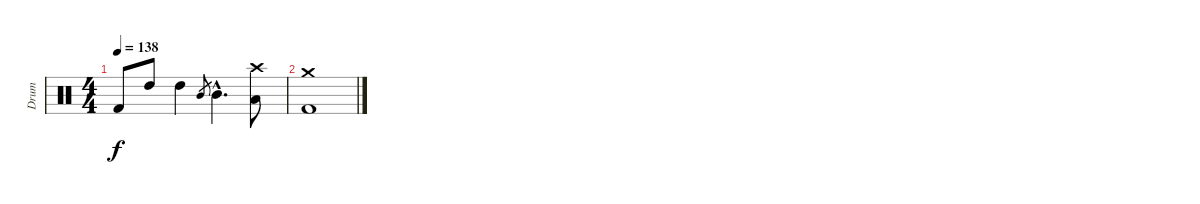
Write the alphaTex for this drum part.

\track ("Drum" "Drum") {instrument percussion}
\staff {score}
\articulation defaults
\ts (4 4)
\tempo 138
\clef neutral
\ks c "Kick (hit) 2".8{dy f} "High Tom (hit)".8 "High Tom (hit)".4 "Mid Tom (hit)".8{gr} "Mid Tom (hit)"{hac}.4{d}
("Low Tom (hit)" "Crash high (hit)").8 |
("Kick (hit) 2" "Crash medium (hit)").1
